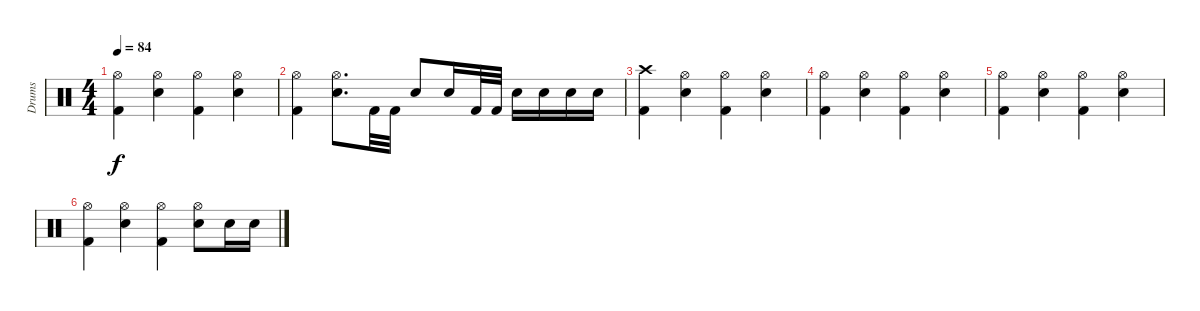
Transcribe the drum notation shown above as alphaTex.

\track ("Drums" "Drums") {instrument percussion}
\staff {score}
\articulation defaults
\ts (4 4)
\tempo 84
\clef neutral
\ks c
("Hi-Hat (open)" "Kick (hit) 2").4{dy f} ("Hi-Hat (open)" "Snare (hit) 2").4 ("Hi-Hat (open)" "Kick (hit) 2").4 ("Hi-Hat (open)" "Snare (hit) 2").4 |
("Hi-Hat (open)" "Kick (hit) 2").4 ("Hi-Hat (open)" "Snare (hit) 2").8{d} "Kick (hit) 2".32 "Kick (hit) 2".32 "Snare (hit) 2".8 "Snare (hit) 2".16 "Kick (hit) 2".32 "Kick (hit) 2".32 "Snare (hit) 2".16 "Snare (hit) 2".16 "Snare (hit) 2".16 "Snare (hit) 2".16 |
("Crash high (hit)" "Kick (hit) 2").4 ("Hi-Hat (open)" "Snare (hit) 2").4 ("Hi-Hat (open)" "Kick (hit) 2").4 ("Hi-Hat (open)" "Snare (hit) 2").4 |
("Hi-Hat (open)" "Kick (hit) 2").4 ("Hi-Hat (open)" "Snare (hit) 2").4 ("Hi-Hat (open)" "Kick (hit) 2").4 ("Hi-Hat (open)" "Snare (hit) 2").4 |
("Hi-Hat (open)" "Kick (hit) 2").4 ("Hi-Hat (open)" "Snare (hit) 2").4 ("Hi-Hat (open)" "Kick (hit) 2").4 ("Hi-Hat (open)" "Snare (hit) 2").4 |
("Hi-Hat (open)" "Kick (hit) 2").4 ("Hi-Hat (open)" "Snare (hit) 2").4 ("Hi-Hat (open)" "Kick (hit) 2").4 ("Hi-Hat (open)" "Snare (hit) 2").8 "Snare (hit) 2".16 "Snare (hit) 2".16
